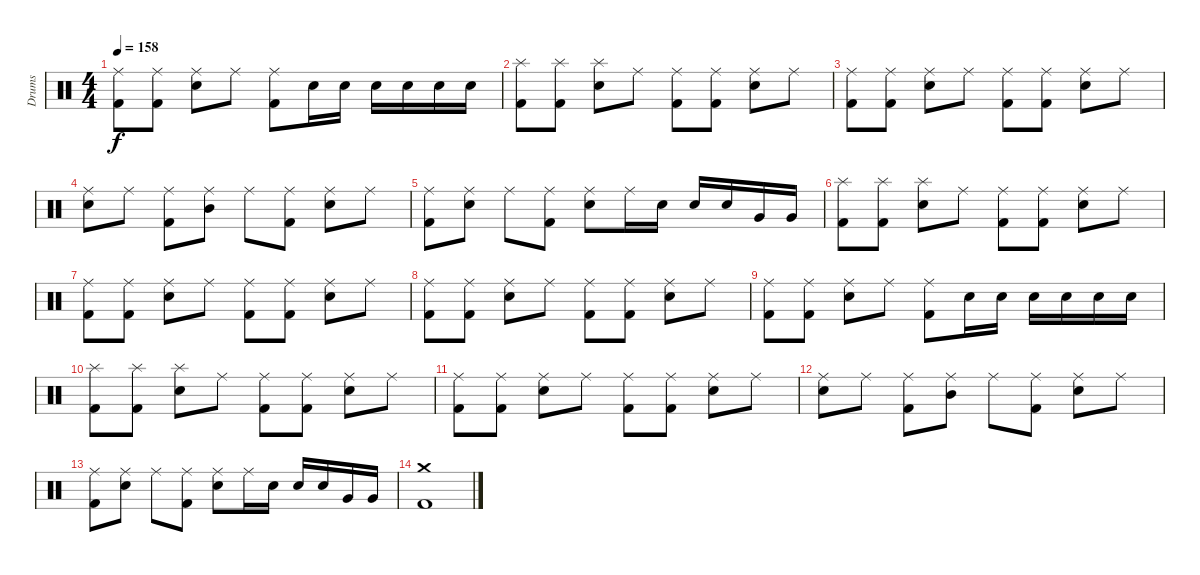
\track ("Drums" "Drums") {instrument percussion}
\staff {score}
\articulation defaults
\ts (4 4)
\tempo 158
\clef neutral
\ks c
("Ride (middle)" "Kick (hit) 2").8{dy f} ("Ride (middle)" "Kick (hit) 2").8 ("Ride (middle)" "Electric Snare (hit)").8 "Ride (middle)".8 ("Ride (middle)" "Kick (hit) 2").8 "Electric Snare (hit)".16 "Electric Snare (hit)".16 "Electric Snare (hit)".16 "Electric Snare (hit)".16 "Electric Snare (hit)".16 "Electric Snare (hit)".16 |
("Splash (hit)" "Kick (hit) 2").8 ("Splash (hit)" "Kick (hit) 2").8 ("Splash (hit)" "Electric Snare (hit)").8 "Ride (middle)".8 ("Ride (middle)" "Kick (hit) 2").8 ("Ride (middle)" "Kick (hit) 2").8 ("Ride (middle)" "Electric Snare (hit)").8 "Ride (middle)".8 |
("Ride (middle)" "Kick (hit) 2").8 ("Ride (middle)" "Kick (hit) 2").8 ("Ride (middle)" "Electric Snare (hit)").8 "Ride (middle)".8 ("Ride (middle)" "Kick (hit) 2").8 ("Ride (middle)" "Kick (hit) 2").8 ("Ride (middle)" "Electric Snare (hit)").8 "Ride (middle)".8 |
("Ride (middle)" "Electric Snare (hit)").8 "Ride (middle)".8 ("Ride (middle)" "Kick (hit) 2").8 ("Ride (middle)" "Mid Tom (hit)").8 "Ride (middle)".8 ("Ride (middle)" "Kick (hit) 2").8 ("Ride (middle)" "Electric Snare (hit)").8 "Ride (middle)".8 |
("Ride (middle)" "Kick (hit) 2").8 ("Ride (middle)" "Electric Snare (hit)").8 "Ride (middle)".8 ("Ride (middle)" "Kick (hit) 2").8 ("Ride (middle)" "Electric Snare (hit)").8 "Ride (middle)".16 "Electric Snare (hit)".16 "Electric Snare (hit)".16 "Electric Snare (hit)".16 "Very Low Tom (hit)".16 "Very Low Tom (hit)".16 |
("Splash (hit)" "Kick (hit) 2").8 ("Splash (hit)" "Kick (hit) 2").8 ("Splash (hit)" "Electric Snare (hit)").8 "Ride (middle)".8 ("Ride (middle)" "Kick (hit) 2").8 ("Ride (middle)" "Kick (hit) 2").8 ("Ride (middle)" "Electric Snare (hit)").8 "Ride (middle)".8 |
("Ride (middle)" "Kick (hit) 2").8 ("Ride (middle)" "Kick (hit) 2").8 ("Ride (middle)" "Electric Snare (hit)").8 "Ride (middle)".8 ("Ride (middle)" "Kick (hit) 2").8 ("Ride (middle)" "Kick (hit) 2").8 ("Ride (middle)" "Electric Snare (hit)").8 "Ride (middle)".8 |
("Ride (middle)" "Kick (hit) 2").8 ("Ride (middle)" "Kick (hit) 2").8 ("Ride (middle)" "Electric Snare (hit)").8 "Ride (middle)".8 ("Ride (middle)" "Kick (hit) 2").8 ("Ride (middle)" "Kick (hit) 2").8 ("Ride (middle)" "Electric Snare (hit)").8 "Ride (middle)".8 |
("Ride (middle)" "Kick (hit) 2").8 ("Ride (middle)" "Kick (hit) 2").8 ("Ride (middle)" "Electric Snare (hit)").8 "Ride (middle)".8 ("Ride (middle)" "Kick (hit) 2").8 "Electric Snare (hit)".16 "Electric Snare (hit)".16 "Electric Snare (hit)".16 "Electric Snare (hit)".16 "Electric Snare (hit)".16 "Electric Snare (hit)".16 |
("Splash (hit)" "Kick (hit) 2").8 ("Splash (hit)" "Kick (hit) 2").8 ("Splash (hit)" "Electric Snare (hit)").8 "Ride (middle)".8 ("Ride (middle)" "Kick (hit) 2").8 ("Ride (middle)" "Kick (hit) 2").8 ("Ride (middle)" "Electric Snare (hit)").8 "Ride (middle)".8 |
("Ride (middle)" "Kick (hit) 2").8 ("Ride (middle)" "Kick (hit) 2").8 ("Ride (middle)" "Electric Snare (hit)").8 "Ride (middle)".8 ("Ride (middle)" "Kick (hit) 2").8 ("Ride (middle)" "Kick (hit) 2").8 ("Ride (middle)" "Electric Snare (hit)").8 "Ride (middle)".8 |
("Ride (middle)" "Electric Snare (hit)").8 "Ride (middle)".8 ("Ride (middle)" "Kick (hit) 2").8 ("Ride (middle)" "Mid Tom (hit)").8 "Ride (middle)".8 ("Ride (middle)" "Kick (hit) 2").8 ("Ride (middle)" "Electric Snare (hit)").8 "Ride (middle)".8 |
("Ride (middle)" "Kick (hit) 2").8 ("Ride (middle)" "Electric Snare (hit)").8 "Ride (middle)".8 ("Ride (middle)" "Kick (hit) 2").8 ("Ride (middle)" "Electric Snare (hit)").8 "Ride (middle)".16 "Electric Snare (hit)".16 "Electric Snare (hit)".16 "Electric Snare (hit)".16 "Very Low Tom (hit)".16 "Very Low Tom (hit)".16 |
("Crash medium (hit)" "Kick (hit) 2").1
